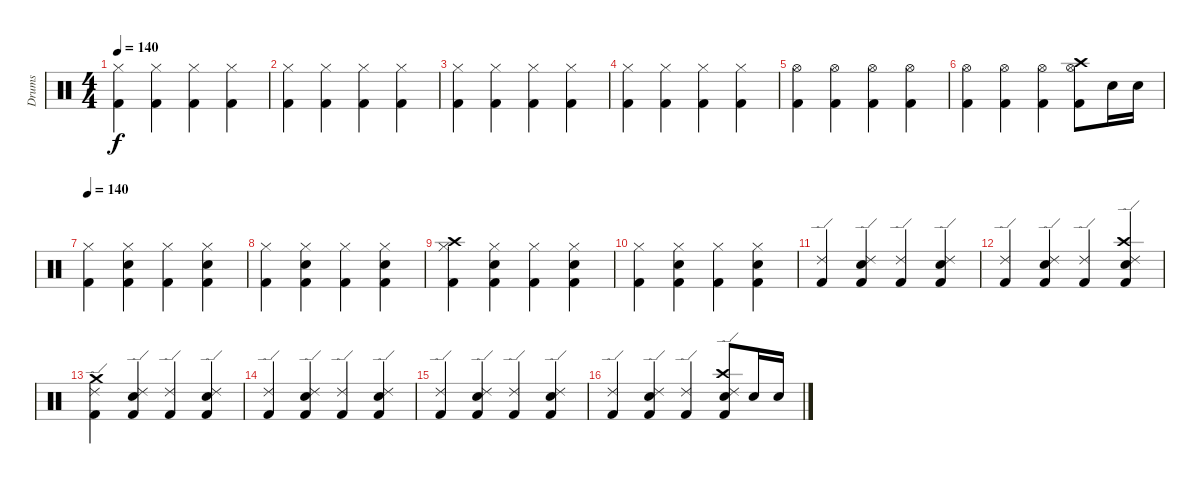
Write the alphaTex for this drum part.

\track ("Drums" "Drums") {instrument percussion}
\staff {score}
\articulation defaults
\ts (4 4)
\tempo 140
\clef neutral
\ks c
("Hi-Hat (closed)" "Kick (hit) 2").4{dy f} ("Hi-Hat (closed)" "Kick (hit) 2").4 ("Hi-Hat (closed)" "Kick (hit) 2").4 ("Hi-Hat (closed)" "Kick (hit) 2").4 |
("Hi-Hat (closed)" "Kick (hit) 2").4 ("Hi-Hat (closed)" "Kick (hit) 2").4 ("Hi-Hat (closed)" "Kick (hit) 2").4 ("Hi-Hat (closed)" "Kick (hit) 2").4 |
("Hi-Hat (closed)" "Kick (hit) 2").4 ("Hi-Hat (closed)" "Kick (hit) 2").4 ("Hi-Hat (closed)" "Kick (hit) 2").4 ("Hi-Hat (closed)" "Kick (hit) 2").4 |
("Hi-Hat (closed)" "Kick (hit) 2").4 ("Hi-Hat (closed)" "Kick (hit) 2").4 ("Hi-Hat (closed)" "Kick (hit) 2").4 ("Hi-Hat (closed)" "Kick (hit) 2").4 |
("Hi-Hat (open)" "Kick (hit) 2").4 ("Hi-Hat (open)" "Kick (hit) 2").4 ("Hi-Hat (open)" "Kick (hit) 2").4 ("Hi-Hat (open)" "Kick (hit) 2").4 |
("Hi-Hat (open)" "Kick (hit) 2").4 ("Hi-Hat (open)" "Kick (hit) 2").4 ("Hi-Hat (open)" "Kick (hit) 2").4 ("Crash high (hit)" "Hi-Hat (open)" "Kick (hit) 2").8 "Electric Snare (hit)".16 "Electric Snare (hit)".16 |
\tempo 140
("Hi-Hat (closed)" "Kick (hit) 2").4 ("Hi-Hat (closed)" "Electric Snare (hit)" "Kick (hit) 2").4 ("Hi-Hat (closed)" "Kick (hit) 2").4 ("Hi-Hat (closed)" "Electric Snare (hit)" "Kick (hit) 2").4 |
("Hi-Hat (closed)" "Kick (hit) 2").4 ("Hi-Hat (closed)" "Electric Snare (hit)" "Kick (hit) 2").4 ("Hi-Hat (closed)" "Kick (hit) 2").4 ("Hi-Hat (closed)" "Electric Snare (hit)" "Kick (hit) 2").4 |
("Hi-Hat (closed)" "Crash high (hit)" "Kick (hit) 2").4 ("Hi-Hat (closed)" "Electric Snare (hit)" "Kick (hit) 2").4 ("Hi-Hat (closed)" "Kick (hit) 2").4 ("Hi-Hat (closed)" "Electric Snare (hit)" "Kick (hit) 2").4 |
("Hi-Hat (closed)" "Kick (hit) 2").4 ("Hi-Hat (closed)" "Electric Snare (hit)" "Kick (hit) 2").4 ("Hi-Hat (closed)" "Kick (hit) 2").4 ("Hi-Hat (closed)" "Electric Snare (hit)" "Kick (hit) 2").4 |
("Ride (edge) 2" "Kick (hit) 2").4 ("Ride (edge) 2" "Electric Snare (hit)" "Kick (hit) 2").4 ("Ride (edge) 2" "Kick (hit) 2").4 ("Ride (edge) 2" "Electric Snare (hit)" "Kick (hit) 2").4 |
("Ride (edge) 2" "Kick (hit) 2").4 ("Ride (edge) 2" "Electric Snare (hit)" "Kick (hit) 2").4 ("Ride (edge) 2" "Kick (hit) 2").4 ("Ride (edge) 2" "Crash high (hit)" "Electric Snare (hit)" "Kick (hit) 2").4 |
("Ride (edge) 2" "Crash medium (hit)" "Kick (hit) 2").4 ("Ride (edge) 2" "Electric Snare (hit)" "Kick (hit) 2").4 ("Ride (edge) 2" "Kick (hit) 2").4 ("Ride (edge) 2" "Electric Snare (hit)" "Kick (hit) 2").4 |
("Ride (edge) 2" "Kick (hit) 2").4 ("Ride (edge) 2" "Electric Snare (hit)" "Kick (hit) 2").4 ("Ride (edge) 2" "Kick (hit) 2").4 ("Ride (edge) 2" "Electric Snare (hit)" "Kick (hit) 2").4 |
("Ride (edge) 2" "Kick (hit) 2").4 ("Ride (edge) 2" "Electric Snare (hit)" "Kick (hit) 2").4 ("Ride (edge) 2" "Kick (hit) 2").4 ("Ride (edge) 2" "Electric Snare (hit)" "Kick (hit) 2").4 |
("Ride (edge) 2" "Kick (hit) 2").4 ("Ride (edge) 2" "Electric Snare (hit)" "Kick (hit) 2").4 ("Ride (edge) 2" "Kick (hit) 2").4 ("Ride (edge) 2" "Crash high (hit)" "Electric Snare (hit)" "Kick (hit) 2").8 "Electric Snare (hit)".16 "Electric Snare (hit)".16
